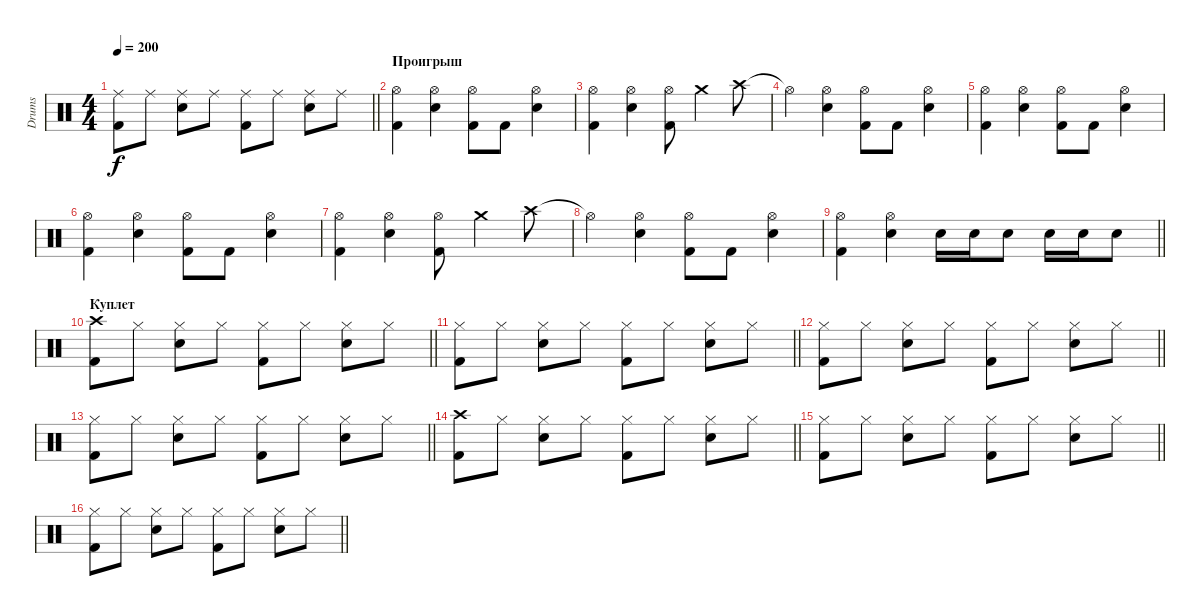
\track ("Drums" "Drums") {instrument percussion}
\staff {score}
\articulation defaults
\ts (4 4)
\tempo 200
\clef neutral
\barLineRight lightlight
\ks c
("Ride (middle)" "Kick (hit) 2").8{dy f} "Ride (middle)".8 ("Ride (middle)" "Snare (hit) 2").8 "Ride (middle)".8 ("Ride (middle)" "Kick (hit) 2").8 "Ride (middle)".8 ("Ride (middle)" "Snare (hit) 2").8 "Ride (middle)".8 |
\section ("" "Проигрыш")
("Hi-Hat (open)" "Kick (hit) 2").4 ("Hi-Hat (open)" "Snare (hit) 2").4 ("Hi-Hat (open)" "Kick (hit) 2").8 "Kick (hit) 2".8 ("Hi-Hat (open)" "Snare (hit) 2").4 |
("Hi-Hat (open)" "Kick (hit) 2").4 ("Hi-Hat (open)" "Snare (hit) 2").4 ("Hi-Hat (open)" "Kick (hit) 2").8 "Crash medium (hit)".4 "Crash high (hit)".8 |
"Hi-Hat (open)"{t}.4 ("Hi-Hat (open)" "Snare (hit) 2").4 ("Hi-Hat (open)" "Kick (hit) 2").8 "Kick (hit) 2".8 ("Hi-Hat (open)" "Snare (hit) 2").4 |
("Hi-Hat (open)" "Kick (hit) 2").4 ("Hi-Hat (open)" "Snare (hit) 2").4 ("Hi-Hat (open)" "Kick (hit) 2").8 "Kick (hit) 2".8 ("Hi-Hat (open)" "Snare (hit) 2").4 |
("Hi-Hat (open)" "Kick (hit) 2").4 ("Hi-Hat (open)" "Snare (hit) 2").4 ("Hi-Hat (open)" "Kick (hit) 2").8 "Kick (hit) 2".8 ("Hi-Hat (open)" "Snare (hit) 2").4 |
("Hi-Hat (open)" "Kick (hit) 2").4 ("Hi-Hat (open)" "Snare (hit) 2").4 ("Hi-Hat (open)" "Kick (hit) 2").8 "Crash medium (hit)".4 "Crash high (hit)".8 |
"Hi-Hat (open)"{t}.4 ("Hi-Hat (open)" "Snare (hit) 2").4 ("Hi-Hat (open)" "Kick (hit) 2").8 "Kick (hit) 2".8 ("Hi-Hat (open)" "Snare (hit) 2").4 |
\barLineRight lightlight
("Hi-Hat (open)" "Kick (hit) 2").4 ("Hi-Hat (open)" "Snare (hit) 2").4 "Snare (hit) 2".16 "Snare (hit) 2".16 "Snare (hit) 2".8 "Snare (hit) 2".16 "Snare (hit) 2".16 "Snare (hit) 2".8 |
\section ("" "Куплет")
\barLineRight lightlight
("Crash high (hit)" "Kick (hit) 2").8 "Hi-Hat (closed)".8 ("Hi-Hat (closed)" "Snare (hit) 2").8 "Hi-Hat (closed)".8 ("Hi-Hat (closed)" "Kick (hit) 2").8 "Hi-Hat (closed)".8 ("Hi-Hat (closed)" "Snare (hit) 2").8 "Hi-Hat (closed)".8 |
\barLineRight lightlight
("Hi-Hat (closed)" "Kick (hit) 2").8 "Hi-Hat (closed)".8 ("Hi-Hat (closed)" "Snare (hit) 2").8 "Hi-Hat (closed)".8 ("Hi-Hat (closed)" "Kick (hit) 2").8 "Hi-Hat (closed)".8 ("Hi-Hat (closed)" "Snare (hit) 2").8 "Hi-Hat (closed)".8 |
\barLineRight lightlight
("Hi-Hat (closed)" "Kick (hit) 2").8 "Hi-Hat (closed)".8 ("Hi-Hat (closed)" "Snare (hit) 2").8 "Hi-Hat (closed)".8 ("Hi-Hat (closed)" "Kick (hit) 2").8 "Hi-Hat (closed)".8 ("Hi-Hat (closed)" "Snare (hit) 2").8 "Hi-Hat (closed)".8 |
\barLineRight lightlight
("Hi-Hat (closed)" "Kick (hit) 2").8 "Hi-Hat (closed)".8 ("Hi-Hat (closed)" "Snare (hit) 2").8 "Hi-Hat (closed)".8 ("Hi-Hat (closed)" "Kick (hit) 2").8 "Hi-Hat (closed)".8 ("Hi-Hat (closed)" "Snare (hit) 2").8 "Hi-Hat (closed)".8 |
\barLineRight lightlight
("Crash high (hit)" "Kick (hit) 2").8 "Hi-Hat (closed)".8 ("Hi-Hat (closed)" "Snare (hit) 2").8 "Hi-Hat (closed)".8 ("Hi-Hat (closed)" "Kick (hit) 2").8 "Hi-Hat (closed)".8 ("Hi-Hat (closed)" "Snare (hit) 2").8 "Hi-Hat (closed)".8 |
\barLineRight lightlight
("Hi-Hat (closed)" "Kick (hit) 2").8 "Hi-Hat (closed)".8 ("Hi-Hat (closed)" "Snare (hit) 2").8 "Hi-Hat (closed)".8 ("Hi-Hat (closed)" "Kick (hit) 2").8 "Hi-Hat (closed)".8 ("Hi-Hat (closed)" "Snare (hit) 2").8 "Hi-Hat (closed)".8 |
\barLineRight lightlight
("Hi-Hat (closed)" "Kick (hit) 2").8 "Hi-Hat (closed)".8 ("Hi-Hat (closed)" "Snare (hit) 2").8 "Hi-Hat (closed)".8 ("Hi-Hat (closed)" "Kick (hit) 2").8 "Hi-Hat (closed)".8 ("Hi-Hat (closed)" "Snare (hit) 2").8 "Hi-Hat (closed)".8
